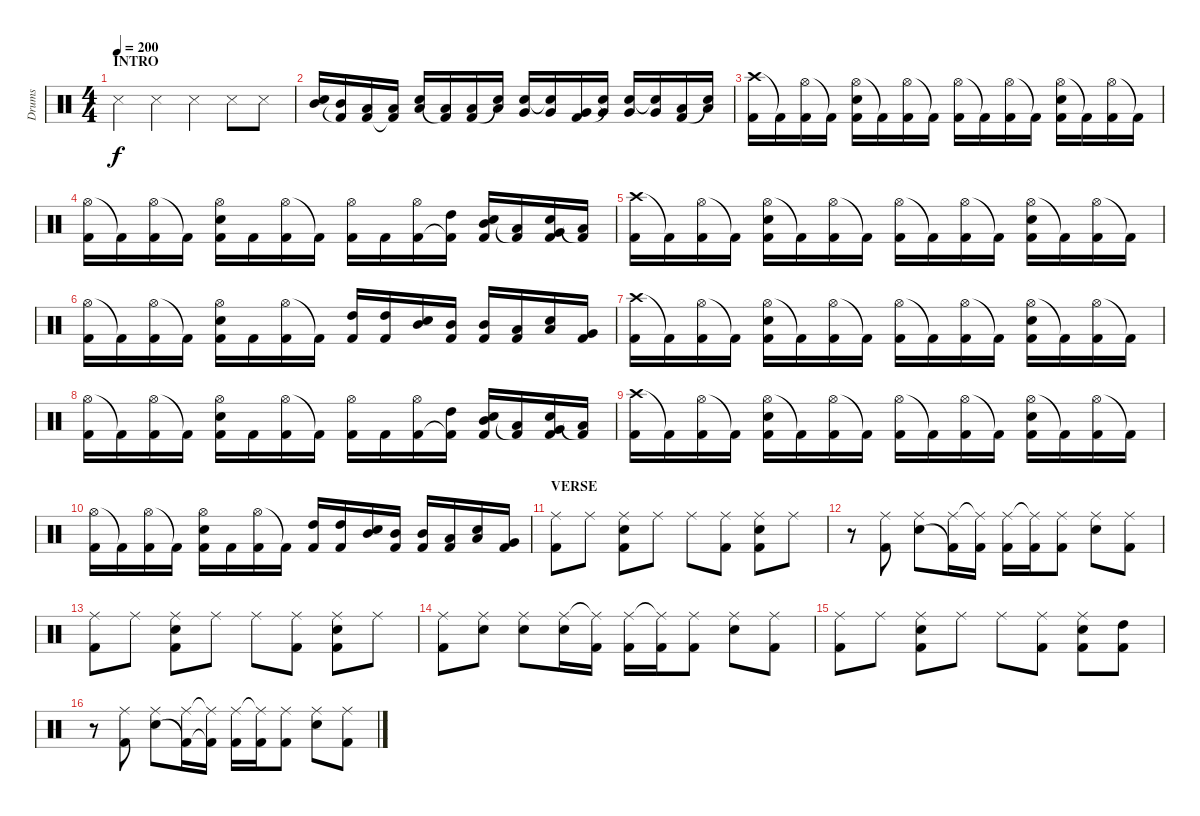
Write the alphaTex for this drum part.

\track ("Drums" "Drums") {instrument percussion}
\staff {score}
\articulation defaults
\ts (4 4)
\section ("" "INTRO")
\tempo 200
\clef neutral
\ks c "Metronome (hit)".4{dy f} "Metronome (hit)".4 "Metronome (hit)".4 "Metronome (hit)".8 "Metronome (hit)".8
|
("Electric Snare (hit)" "Mid Tom (hit)").16 ("Kick (hit) 2"{t} "Mid Tom (hit)").16 ("Kick (hit) 2" "Low Tom (hit)").16 ("Kick (hit) 2"{t} "Low Tom (hit)").16 ("Electric Snare (hit)" "Low Tom (hit)").16 ("Kick (hit) 2"{t} "Low Tom (hit)").16 ("Kick (hit) 2" "Low Tom (hit)").16 ("Electric Snare (hit)"{t} "Low Tom (hit)").16 ("Electric Snare (hit)" "Very Low Tom (hit)").16 ("Electric Snare (hit)"{t} "Very Low Tom (hit)").16 ("Kick (hit) 2" "Very Low Tom (hit)").16 ("Electric Snare (hit)"{t} "Very Low Tom (hit)").16 ("Electric Snare (hit)" "Very Low Tom (hit)").16 ("Electric Snare (hit)"{t} "Very Low Tom (hit)").16 ("Kick (hit) 2" "Low Floor Tom (hit)").16 ("Electric Snare (hit)"{t} "Low Floor Tom (hit)").16 |
("Crash high (hit)" "Kick (hit) 2").16 "Kick (hit) 2"{t}.16 ("Hi-Hat (open)" "Kick (hit) 2").16 "Kick (hit) 2"{t}.16 ("Hi-Hat (open)" "Electric Snare (hit)" "Kick (hit) 2").16 "Kick (hit) 2"{t}.16 ("Hi-Hat (open)" "Kick (hit) 2").16 "Kick (hit) 2"{t}.16 ("Hi-Hat (open)" "Kick (hit) 2").16 "Kick (hit) 2"{t}.16 ("Hi-Hat (open)" "Kick (hit) 2").16 "Kick (hit) 2"{t}.16 ("Hi-Hat (open)" "Electric Snare (hit)" "Kick (hit) 2").16 "Kick (hit) 2"{t}.16 ("Hi-Hat (open)" "Kick (hit) 2").16 "Kick (hit) 2"{t}.16 |
("Hi-Hat (open)" "Kick (hit) 2").16 "Kick (hit) 2"{t}.16 ("Hi-Hat (open)" "Kick (hit) 2").16 "Kick (hit) 2"{t}.16 ("Hi-Hat (open)" "Electric Snare (hit)" "Kick (hit) 2").16 "Kick (hit) 2".16 ("Hi-Hat (open)" "Kick (hit) 2").16 "Kick (hit) 2"{t}.16 ("Hi-Hat (open)" "Kick (hit) 2").16 "Kick (hit) 2".16 ("Hi-Hat (open)" "Kick (hit) 2").16 ("High Tom (hit)" "Kick (hit) 2"{t}).16 ("Mid Tom (hit)" "Electric Snare (hit)" "Kick (hit) 2").16 ("Low Tom (hit)" "Kick (hit) 2"{t}).16 ("Very Low Tom (hit)" "Electric Snare (hit)" "Kick (hit) 2").16 ("Low Floor Tom (hit)" "Kick (hit) 2"{t}).16 |
("Crash high (hit)" "Kick (hit) 2").16 "Kick (hit) 2"{t}.16 ("Hi-Hat (open)" "Kick (hit) 2").16 "Kick (hit) 2"{t}.16 ("Hi-Hat (open)" "Electric Snare (hit)" "Kick (hit) 2").16 "Kick (hit) 2"{t}.16 ("Hi-Hat (open)" "Kick (hit) 2").16 "Kick (hit) 2"{t}.16 ("Hi-Hat (open)" "Kick (hit) 2").16 "Kick (hit) 2"{t}.16 ("Hi-Hat (open)" "Kick (hit) 2").16 "Kick (hit) 2"{t}.16 ("Hi-Hat (open)" "Electric Snare (hit)" "Kick (hit) 2").16 "Kick (hit) 2"{t}.16 ("Hi-Hat (open)" "Kick (hit) 2").16 "Kick (hit) 2"{t}.16 |
("Hi-Hat (open)" "Kick (hit) 2").16 "Kick (hit) 2"{t}.16 ("Hi-Hat (open)" "Kick (hit) 2").16 "Kick (hit) 2"{t}.16 ("Hi-Hat (open)" "Electric Snare (hit)" "Kick (hit) 2").16 "Kick (hit) 2".16 ("Hi-Hat (open)" "Kick (hit) 2").16 "Kick (hit) 2"{t}.16 ("High Tom (hit)" "Kick (hit) 2").16 ("High Tom (hit)" "Kick (hit) 2").16 ("Mid Tom (hit)" "Electric Snare (hit)").16 ("Mid Tom (hit)" "Kick (hit) 2").16 ("Mid Tom (hit)" "Kick (hit) 2").16 ("Low Tom (hit)" "Kick (hit) 2").16 ("Low Tom (hit)" "Electric Snare (hit)").16 ("Very Low Tom (hit)" "Kick (hit) 2").16 |
("Crash high (hit)" "Kick (hit) 2").16 "Kick (hit) 2"{t}.16 ("Hi-Hat (open)" "Kick (hit) 2").16 "Kick (hit) 2"{t}.16 ("Hi-Hat (open)" "Electric Snare (hit)" "Kick (hit) 2").16 "Kick (hit) 2"{t}.16 ("Hi-Hat (open)" "Kick (hit) 2").16 "Kick (hit) 2"{t}.16 ("Hi-Hat (open)" "Kick (hit) 2").16 "Kick (hit) 2"{t}.16 ("Hi-Hat (open)" "Kick (hit) 2").16 "Kick (hit) 2"{t}.16 ("Hi-Hat (open)" "Electric Snare (hit)" "Kick (hit) 2").16 "Kick (hit) 2"{t}.16 ("Hi-Hat (open)" "Kick (hit) 2").16 "Kick (hit) 2"{t}.16 |
("Hi-Hat (open)" "Kick (hit) 2").16 "Kick (hit) 2"{t}.16 ("Hi-Hat (open)" "Kick (hit) 2").16 "Kick (hit) 2"{t}.16 ("Hi-Hat (open)" "Electric Snare (hit)" "Kick (hit) 2").16 "Kick (hit) 2".16 ("Hi-Hat (open)" "Kick (hit) 2").16 "Kick (hit) 2"{t}.16 ("Hi-Hat (open)" "Kick (hit) 2").16 "Kick (hit) 2".16 ("Hi-Hat (open)" "Kick (hit) 2").16 ("High Tom (hit)" "Kick (hit) 2"{t}).16 ("Mid Tom (hit)" "Electric Snare (hit)" "Kick (hit) 2").16 ("Low Tom (hit)" "Kick (hit) 2"{t}).16 ("Very Low Tom (hit)" "Electric Snare (hit)" "Kick (hit) 2").16 ("Low Floor Tom (hit)" "Kick (hit) 2"{t}).16 |
("Crash high (hit)" "Kick (hit) 2").16 "Kick (hit) 2"{t}.16 ("Hi-Hat (open)" "Kick (hit) 2").16 "Kick (hit) 2"{t}.16 ("Hi-Hat (open)" "Electric Snare (hit)" "Kick (hit) 2").16 "Kick (hit) 2"{t}.16 ("Hi-Hat (open)" "Kick (hit) 2").16 "Kick (hit) 2"{t}.16 ("Hi-Hat (open)" "Kick (hit) 2").16 "Kick (hit) 2"{t}.16 ("Hi-Hat (open)" "Kick (hit) 2").16 "Kick (hit) 2"{t}.16 ("Hi-Hat (open)" "Electric Snare (hit)" "Kick (hit) 2").16 "Kick (hit) 2"{t}.16 ("Hi-Hat (open)" "Kick (hit) 2").16 "Kick (hit) 2"{t}.16 |
("Hi-Hat (open)" "Kick (hit) 2").16 "Kick (hit) 2"{t}.16 ("Hi-Hat (open)" "Kick (hit) 2").16 "Kick (hit) 2"{t}.16 ("Hi-Hat (open)" "Electric Snare (hit)" "Kick (hit) 2").16 "Kick (hit) 2".16 ("Hi-Hat (open)" "Kick (hit) 2").16 "Kick (hit) 2"{t}.16 ("High Tom (hit)" "Kick (hit) 2").16 ("High Tom (hit)" "Kick (hit) 2").16 ("Mid Tom (hit)" "Electric Snare (hit)").16 ("Mid Tom (hit)" "Kick (hit) 2").16 ("Mid Tom (hit)" "Kick (hit) 2").16 ("Low Tom (hit)" "Kick (hit) 2").16 ("Low Tom (hit)" "Electric Snare (hit)").16 ("Very Low Tom (hit)" "Kick (hit) 2").16 |
\section ("" "VERSE")
("Ride (middle)" "Kick (hit) 2").8 "Ride (middle)".8 ("Ride (middle)" "Electric Snare (hit)" "Kick (hit) 2").8 "Ride (middle)".8 "Ride (middle)".8 ("Ride (middle)" "Kick (hit) 2").8 ("Ride (middle)" "Electric Snare (hit)" "Kick (hit) 2").8 "Ride (middle)".8 |
r.8 ("Ride (middle)" "Kick (hit) 2").8 ("Ride (middle)" "Electric Snare (hit)").8 ("Ride (middle)" "Kick (hit) 2"{t}).16 ("Ride (middle)"{t} "Kick (hit) 2").16 ("Ride (middle)" "Kick (hit) 2").16 ("Ride (middle)"{t} "Kick (hit) 2").16 ("Ride (middle)" "Kick (hit) 2").8 ("Ride (middle)" "Electric Snare (hit)").8 ("Ride (middle)" "Kick (hit) 2").8 |
("Ride (middle)" "Kick (hit) 2").8 "Ride (middle)".8 ("Ride (middle)" "Electric Snare (hit)" "Kick (hit) 2").8 "Ride (middle)".8 "Ride (middle)".8 ("Ride (middle)" "Kick (hit) 2").8 ("Ride (middle)" "Electric Snare (hit)" "Kick (hit) 2").8 "Ride (middle)".8 |
("Ride (middle)" "Kick (hit) 2").8 ("Ride (middle)" "Electric Snare (hit)").8 ("Ride (middle)" "Electric Snare (hit)").8 ("Ride (middle)" "Electric Snare (hit)").16 ("Ride (middle)"{t} "Kick (hit) 2").16 ("Ride (middle)" "Kick (hit) 2").16 ("Ride (middle)"{t} "Kick (hit) 2").16 ("Ride (middle)" "Kick (hit) 2").8 ("Ride (middle)" "Electric Snare (hit)").8 ("Ride (middle)" "Kick (hit) 2").8 |
("Ride (middle)" "Kick (hit) 2").8 "Ride (middle)".8 ("Ride (middle)" "Electric Snare (hit)" "Kick (hit) 2").8 "Ride (middle)".8 "Ride (middle)".8 ("Ride (middle)" "Kick (hit) 2").8 ("Ride (middle)" "Electric Snare (hit)" "Kick (hit) 2").8 ("High Tom (hit)" "Kick (hit) 2").8 |
r.8 ("Ride (middle)" "Kick (hit) 2").8 ("Ride (middle)" "Electric Snare (hit)").8 ("Ride (middle)" "Kick (hit) 2"{t}).16 ("Ride (middle)"{t} "Kick (hit) 2"{t}).16 ("Ride (middle)" "Kick (hit) 2").16 ("Ride (middle)"{t} "Kick (hit) 2").16 ("Ride (middle)" "Kick (hit) 2").8 ("Ride (middle)" "Electric Snare (hit)").8 ("Ride (middle)" "Kick (hit) 2").8
